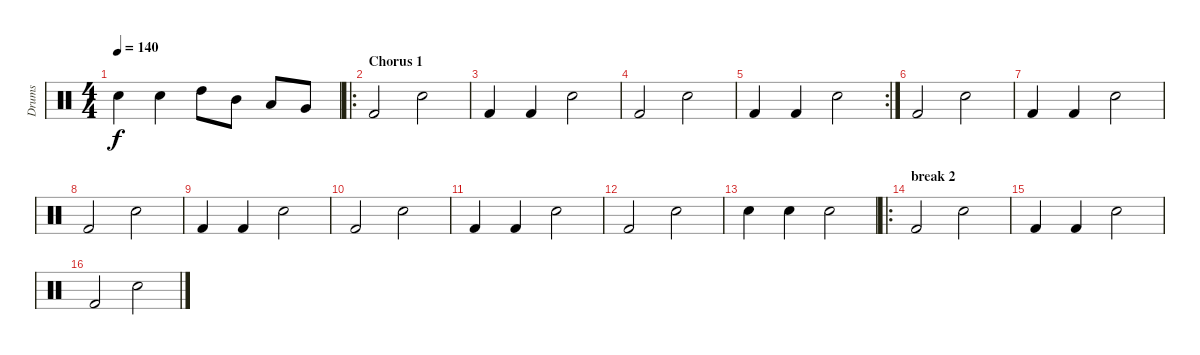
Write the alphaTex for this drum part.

\track ("Drums" "Drums") {instrument percussion}
\staff {score}
\articulation defaults
\ts (4 4)
\tempo 140
\clef neutral
\ks c "Snare (hit) 2".4{dy f} "Snare (hit) 2".4 "High Tom (hit)".8 "Mid Tom (hit)".8 "Low Tom (hit)".8 "Very Low Tom (hit)".8
|
\ro
\section ("" "Chorus 1")
"Kick (hit) 2".2 "Snare (hit) 2".2 |
"Kick (hit) 2".4 "Kick (hit) 2".4 "Snare (hit) 2".2 |
"Kick (hit) 2".2 "Snare (hit) 2".2 |
\rc 2 "Kick (hit) 2".4 "Kick (hit) 2".4 "Snare (hit) 2".2
|
"Kick (hit) 2".2 "Snare (hit) 2".2 |
"Kick (hit) 2".4 "Kick (hit) 2".4 "Snare (hit) 2".2 |
"Kick (hit) 2".2 "Snare (hit) 2".2 |
"Kick (hit) 2".4 "Kick (hit) 2".4 "Snare (hit) 2".2 |
"Kick (hit) 2".2 "Snare (hit) 2".2 |
"Kick (hit) 2".4 "Kick (hit) 2".4 "Snare (hit) 2".2 |
"Kick (hit) 2".2 "Snare (hit) 2".2 |
"Snare (hit) 2".4 "Snare (hit) 2".4 "Snare (hit) 2".2 |
\ro
\section ("" "break 2")
"Kick (hit) 2".2 "Snare (hit) 2".2 |
"Kick (hit) 2".4 "Kick (hit) 2".4 "Snare (hit) 2".2 |
"Kick (hit) 2".2 "Snare (hit) 2".2
